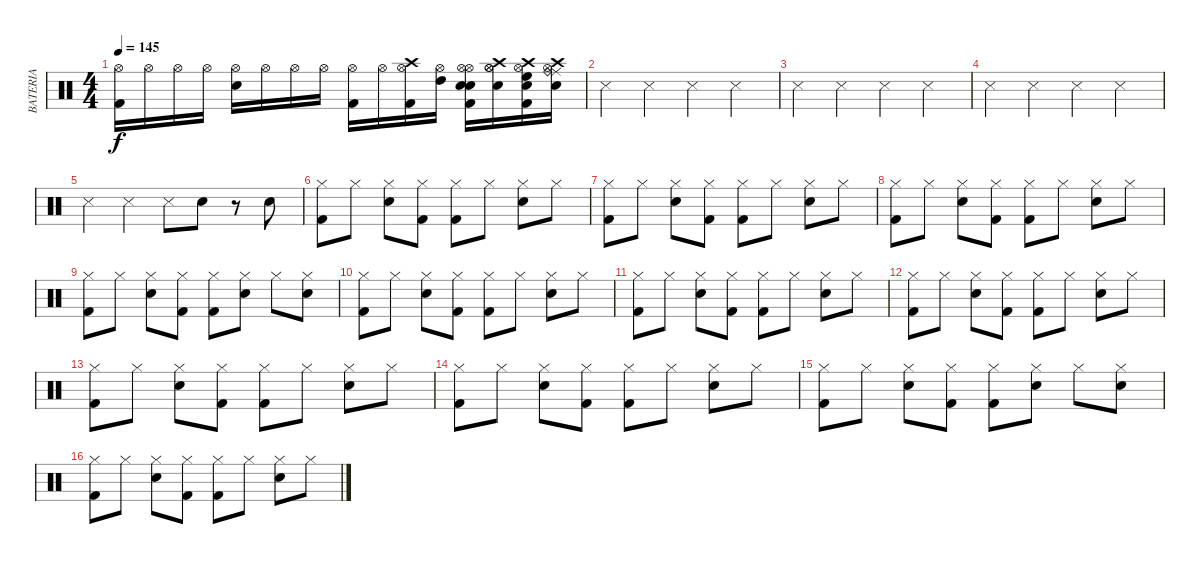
\track ("BATERIA" "BATERIA") {instrument percussion}
\staff {score}
\articulation defaults
\ts (4 4)
\tempo 145
\clef neutral
\ks c
("Hi-Hat (open)" "Kick (hit) 2").16{dy f} "Hi-Hat (open)".16 "Hi-Hat (open)".16 "Hi-Hat (open)".16 ("Hi-Hat (open)" "Snare (hit) 2").16 "Hi-Hat (open)".16 "Hi-Hat (open)".16 "Hi-Hat (open)".16 ("Hi-Hat (open)" "Kick (hit) 2").16 "Hi-Hat (open)".16 ("Hi-Hat (open)" "Kick (hit) 2" "Crash high (hit)").16 ("Hi-Hat (open)" "High Tom (hit)").16 ("Hi-Hat (open)" "Kick (hit) 2" "Snare (hit) 2" "Hi-Hat (open)" "Snare (hit) 2").16 ("Hi-Hat (open)" "Crash high (hit)" "Hi-Hat (open)" "Snare (hit) 2").16 ("Hi-Hat (open)" "Kick (hit) 2" "Crash high (hit)" "High Floor Tom (hit)" "Snare (hit) 2").16 ("Hi-Hat (open)" "Crash high (hit)" "Ride (middle)" "Ride (bell)" "Snare (hit) 2").16 |
"Metronome (hit)".4 "Metronome (hit)".4 "Metronome (hit)".4 "Metronome (hit)".4 |
"Metronome (hit)".4 "Metronome (hit)".4 "Metronome (hit)".4 "Metronome (hit)".4 |
"Metronome (hit)".4 "Metronome (hit)".4 "Metronome (hit)".4 "Metronome (hit)".4 |
"Metronome (hit)".4 "Metronome (hit)".4 "Metronome (hit)".8 "Snare (hit) 2".8 r.8 "Snare (hit) 2".8 |
("Kick (hit) 2" "Hi-Hat (closed)").8 "Hi-Hat (closed)".8 ("Snare (hit) 2" "Hi-Hat (closed)").8 ("Kick (hit) 2" "Hi-Hat (closed)").8 ("Kick (hit) 2" "Hi-Hat (closed)").8 "Hi-Hat (closed)".8 ("Snare (hit) 2" "Hi-Hat (closed)").8 "Hi-Hat (closed)".8 |
("Kick (hit) 2" "Hi-Hat (closed)").8 "Hi-Hat (closed)".8 ("Snare (hit) 2" "Hi-Hat (closed)").8 ("Kick (hit) 2" "Hi-Hat (closed)").8 ("Kick (hit) 2" "Hi-Hat (closed)").8 "Hi-Hat (closed)".8 ("Snare (hit) 2" "Hi-Hat (closed)").8 "Hi-Hat (closed)".8 |
("Kick (hit) 2" "Hi-Hat (closed)").8 "Hi-Hat (closed)".8 ("Snare (hit) 2" "Hi-Hat (closed)").8 ("Kick (hit) 2" "Hi-Hat (closed)").8 ("Kick (hit) 2" "Hi-Hat (closed)").8 "Hi-Hat (closed)".8 ("Snare (hit) 2" "Hi-Hat (closed)").8 "Hi-Hat (closed)".8 |
("Kick (hit) 2" "Hi-Hat (closed)").8 "Hi-Hat (closed)".8 ("Snare (hit) 2" "Hi-Hat (closed)").8 ("Kick (hit) 2" "Hi-Hat (closed)").8 ("Kick (hit) 2" "Hi-Hat (closed)").8 ("Snare (hit) 2" "Hi-Hat (closed)").8 "Hi-Hat (closed)".8 ("Snare (hit) 2" "Hi-Hat (closed)").8 |
("Kick (hit) 2" "Hi-Hat (closed)").8 "Hi-Hat (closed)".8 ("Snare (hit) 2" "Hi-Hat (closed)").8 ("Kick (hit) 2" "Hi-Hat (closed)").8 ("Kick (hit) 2" "Hi-Hat (closed)").8 "Hi-Hat (closed)".8 ("Snare (hit) 2" "Hi-Hat (closed)").8 "Hi-Hat (closed)".8 |
("Kick (hit) 2" "Hi-Hat (closed)").8 "Hi-Hat (closed)".8 ("Snare (hit) 2" "Hi-Hat (closed)").8 ("Kick (hit) 2" "Hi-Hat (closed)").8 ("Kick (hit) 2" "Hi-Hat (closed)").8 "Hi-Hat (closed)".8 ("Snare (hit) 2" "Hi-Hat (closed)").8 "Hi-Hat (closed)".8 |
("Kick (hit) 2" "Hi-Hat (closed)").8 "Hi-Hat (closed)".8 ("Snare (hit) 2" "Hi-Hat (closed)").8 ("Kick (hit) 2" "Hi-Hat (closed)").8 ("Kick (hit) 2" "Hi-Hat (closed)").8 "Hi-Hat (closed)".8 ("Snare (hit) 2" "Hi-Hat (closed)").8 "Hi-Hat (closed)".8 |
("Kick (hit) 2" "Hi-Hat (closed)").8 "Hi-Hat (closed)".8 ("Snare (hit) 2" "Hi-Hat (closed)").8 ("Kick (hit) 2" "Hi-Hat (closed)").8 ("Kick (hit) 2" "Hi-Hat (closed)").8 "Hi-Hat (closed)".8 ("Snare (hit) 2" "Hi-Hat (closed)").8 "Hi-Hat (closed)".8 |
("Kick (hit) 2" "Hi-Hat (closed)").8 "Hi-Hat (closed)".8 ("Snare (hit) 2" "Hi-Hat (closed)").8 ("Kick (hit) 2" "Hi-Hat (closed)").8 ("Kick (hit) 2" "Hi-Hat (closed)").8 "Hi-Hat (closed)".8 ("Snare (hit) 2" "Hi-Hat (closed)").8 "Hi-Hat (closed)".8 |
("Kick (hit) 2" "Hi-Hat (closed)").8 "Hi-Hat (closed)".8 ("Snare (hit) 2" "Hi-Hat (closed)").8 ("Kick (hit) 2" "Hi-Hat (closed)").8 ("Kick (hit) 2" "Hi-Hat (closed)").8 ("Snare (hit) 2" "Hi-Hat (closed)").8 "Hi-Hat (closed)".8 ("Snare (hit) 2" "Hi-Hat (closed)").8 |
("Kick (hit) 2" "Hi-Hat (closed)").8 "Hi-Hat (closed)".8 ("Snare (hit) 2" "Hi-Hat (closed)").8 ("Kick (hit) 2" "Hi-Hat (closed)").8 ("Kick (hit) 2" "Hi-Hat (closed)").8 "Hi-Hat (closed)".8 ("Snare (hit) 2" "Hi-Hat (closed)").8 "Hi-Hat (closed)".8
